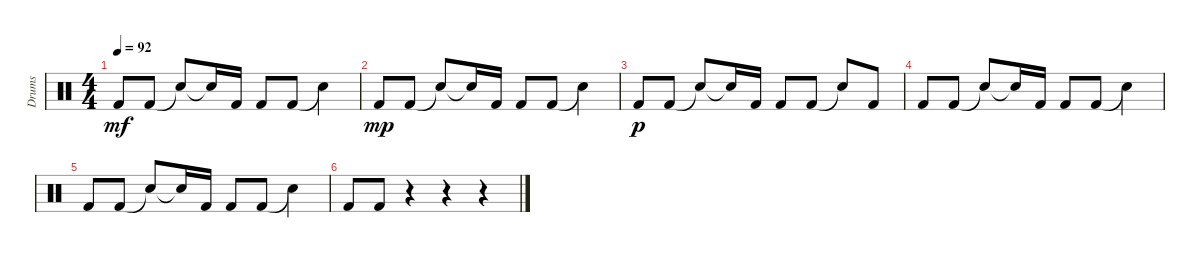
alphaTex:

\track ("Drums" "Drums") {instrument percussion}
\staff {score}
\articulation defaults
\ts (4 4)
\tempo 92
\clef neutral
\ks c "Kick (hit) 2".8{dy mf} "Kick (hit) 2".8 "Snare (hit)"{t}.8 "Snare (hit)"{t}.16 "Kick (hit) 2".16 "Kick (hit) 2".8 "Kick (hit) 2".8 "Snare (hit)"{t}.4
|
"Kick (hit) 2".8{dy mp} "Kick (hit) 2".8 "Snare (hit)"{t}.8 "Snare (hit)"{t}.16 "Kick (hit) 2".16 "Kick (hit) 2".8 "Kick (hit) 2".8 "Snare (hit)"{t}.4 |
"Kick (hit) 2".8{dy p} "Kick (hit) 2".8 "Snare (hit)"{t}.8 "Snare (hit)"{t}.16 "Kick (hit) 2".16 "Kick (hit) 2".8 "Kick (hit) 2".8 "Snare (hit)"{t}.8 "Kick (hit) 2".8 |
"Kick (hit) 2".8 "Kick (hit) 2".8 "Snare (hit)"{t}.8 "Snare (hit)"{t}.16 "Kick (hit) 2".16 "Kick (hit) 2".8 "Kick (hit) 2".8 "Snare (hit)"{t}.4 |
"Kick (hit) 2".8 "Kick (hit) 2".8 "Snare (hit)"{t}.8 "Snare (hit)"{t}.16 "Kick (hit) 2".16 "Kick (hit) 2".8 "Kick (hit) 2".8 "Snare (hit)"{t}.4 |
"Kick (hit) 2".8 "Kick (hit) 2".8 r.4 r.4 r.4
